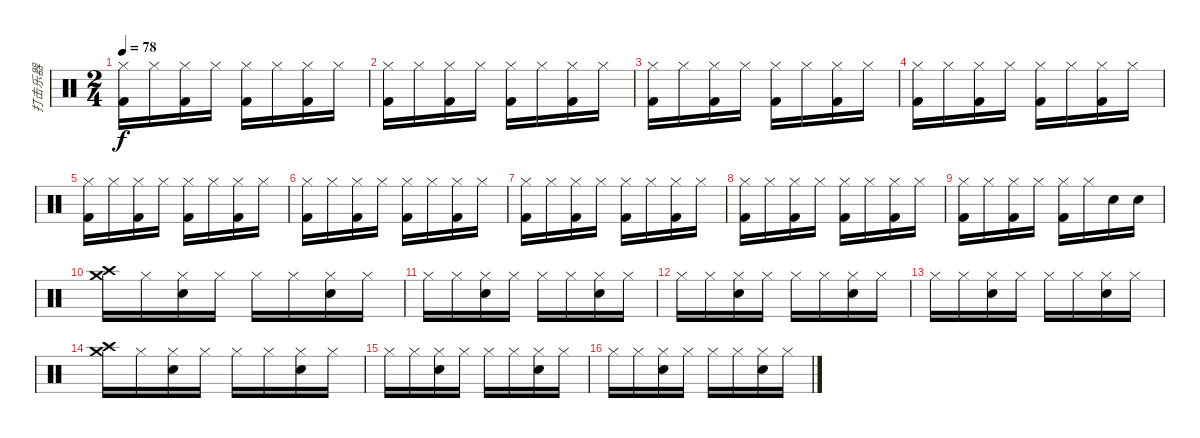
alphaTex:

\track ("打击乐器" "打击乐器") {instrument percussion}
\staff {score}
\articulation defaults
\ts (2 4)
\tempo 78
\clef neutral
\ks c
("Hi-Hat (closed)" "Kick (hit) 2").16{dy f} "Hi-Hat (closed)".16 ("Hi-Hat (closed)" "Kick (hit) 2").16 "Hi-Hat (closed)".16 ("Hi-Hat (closed)" "Kick (hit) 2").16 "Hi-Hat (closed)".16 ("Hi-Hat (closed)" "Kick (hit) 2").16 "Hi-Hat (closed)".16 |
("Hi-Hat (closed)" "Kick (hit) 2").16 "Hi-Hat (closed)".16 ("Hi-Hat (closed)" "Kick (hit) 2").16 "Hi-Hat (closed)".16 ("Hi-Hat (closed)" "Kick (hit) 2").16 "Hi-Hat (closed)".16 ("Hi-Hat (closed)" "Kick (hit) 2").16 "Hi-Hat (closed)".16 |
("Hi-Hat (closed)" "Kick (hit) 2").16 "Hi-Hat (closed)".16 ("Hi-Hat (closed)" "Kick (hit) 2").16 "Hi-Hat (closed)".16 ("Hi-Hat (closed)" "Kick (hit) 2").16 "Hi-Hat (closed)".16 ("Hi-Hat (closed)" "Kick (hit) 2").16 "Hi-Hat (closed)".16 |
("Hi-Hat (closed)" "Kick (hit) 2").16 "Hi-Hat (closed)".16 ("Hi-Hat (closed)" "Kick (hit) 2").16 "Hi-Hat (closed)".16 ("Hi-Hat (closed)" "Kick (hit) 2").16 "Hi-Hat (closed)".16 ("Hi-Hat (closed)" "Kick (hit) 2").16 "Hi-Hat (closed)".16 |
("Hi-Hat (closed)" "Kick (hit) 2").16 "Hi-Hat (closed)".16 ("Hi-Hat (closed)" "Kick (hit) 2").16 "Hi-Hat (closed)".16 ("Hi-Hat (closed)" "Kick (hit) 2").16 "Hi-Hat (closed)".16 ("Hi-Hat (closed)" "Kick (hit) 2").16 "Hi-Hat (closed)".16 |
("Hi-Hat (closed)" "Kick (hit) 2").16 "Hi-Hat (closed)".16 ("Hi-Hat (closed)" "Kick (hit) 2").16 "Hi-Hat (closed)".16 ("Hi-Hat (closed)" "Kick (hit) 2").16 "Hi-Hat (closed)".16 ("Hi-Hat (closed)" "Kick (hit) 2").16 "Hi-Hat (closed)".16 |
("Hi-Hat (closed)" "Kick (hit) 2").16 "Hi-Hat (closed)".16 ("Hi-Hat (closed)" "Kick (hit) 2").16 "Hi-Hat (closed)".16 ("Hi-Hat (closed)" "Kick (hit) 2").16 "Hi-Hat (closed)".16 ("Hi-Hat (closed)" "Kick (hit) 2").16 "Hi-Hat (closed)".16 |
("Hi-Hat (closed)" "Kick (hit) 2").16 "Hi-Hat (closed)".16 ("Hi-Hat (closed)" "Kick (hit) 2").16 "Hi-Hat (closed)".16 ("Hi-Hat (closed)" "Kick (hit) 2").16 "Hi-Hat (closed)".16 ("Hi-Hat (closed)" "Kick (hit) 2").16 "Hi-Hat (closed)".16 |
("Hi-Hat (closed)" "Kick (hit) 2").16 "Hi-Hat (closed)".16 ("Hi-Hat (closed)" "Kick (hit) 2").16 "Hi-Hat (closed)".16 ("Hi-Hat (closed)" "Kick (hit) 2").16 "Hi-Hat (closed)".16 "Electric Snare (hit)".16 "Electric Snare (hit)".16 |
("Crash high (hit)" "Crash medium (hit)").16 "Hi-Hat (closed)".16 ("Hi-Hat (closed)" "Snare (hit) 2").16 "Hi-Hat (closed)".16 "Hi-Hat (closed)".16 "Hi-Hat (closed)".16 ("Hi-Hat (closed)" "Snare (hit) 2").16 "Hi-Hat (closed)".16 |
"Hi-Hat (closed)".16 "Hi-Hat (closed)".16 ("Hi-Hat (closed)" "Snare (hit) 2").16 "Hi-Hat (closed)".16 "Hi-Hat (closed)".16 "Hi-Hat (closed)".16 ("Hi-Hat (closed)" "Snare (hit) 2").16 "Hi-Hat (closed)".16 |
"Hi-Hat (closed)".16 "Hi-Hat (closed)".16 ("Hi-Hat (closed)" "Snare (hit) 2").16 "Hi-Hat (closed)".16 "Hi-Hat (closed)".16 "Hi-Hat (closed)".16 ("Hi-Hat (closed)" "Snare (hit) 2").16 "Hi-Hat (closed)".16 |
"Hi-Hat (closed)".16 "Hi-Hat (closed)".16 ("Hi-Hat (closed)" "Snare (hit) 2").16 "Hi-Hat (closed)".16 "Hi-Hat (closed)".16 "Hi-Hat (closed)".16 ("Hi-Hat (closed)" "Snare (hit) 2").16 "Hi-Hat (closed)".16 |
("Crash high (hit)" "Crash medium (hit)").16 "Hi-Hat (closed)".16 ("Hi-Hat (closed)" "Snare (hit) 2").16 "Hi-Hat (closed)".16 "Hi-Hat (closed)".16 "Hi-Hat (closed)".16 ("Hi-Hat (closed)" "Snare (hit) 2").16 "Hi-Hat (closed)".16 |
"Hi-Hat (closed)".16 "Hi-Hat (closed)".16 ("Hi-Hat (closed)" "Snare (hit) 2").16 "Hi-Hat (closed)".16 "Hi-Hat (closed)".16 "Hi-Hat (closed)".16 ("Hi-Hat (closed)" "Snare (hit) 2").16 "Hi-Hat (closed)".16 |
"Hi-Hat (closed)".16 "Hi-Hat (closed)".16 ("Hi-Hat (closed)" "Snare (hit) 2").16 "Hi-Hat (closed)".16 "Hi-Hat (closed)".16 "Hi-Hat (closed)".16 ("Hi-Hat (closed)" "Snare (hit) 2").16 "Hi-Hat (closed)".16
